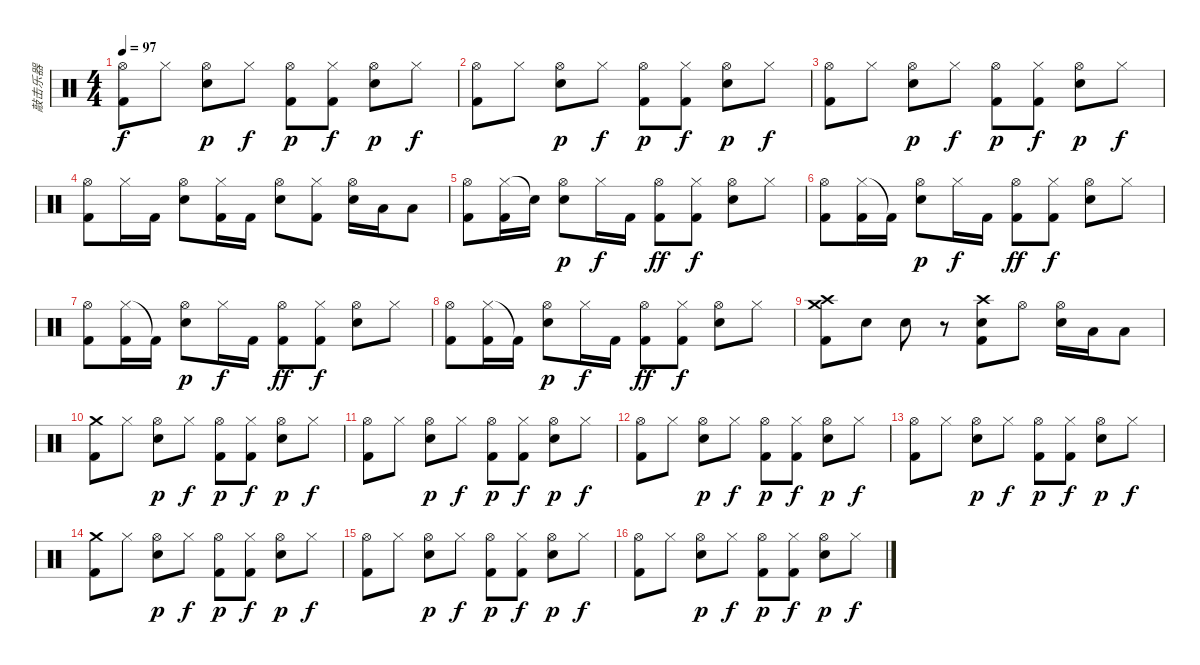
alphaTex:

\track ("敲击乐器" "敲击乐器") {instrument percussion}
\staff {score}
\articulation defaults
\ts (4 4)
\tempo 97
\clef neutral
\ks c
("Hi-Hat (open)" "Kick (hit) 2").8{dy f} "Hi-Hat (closed)".8 ("Hi-Hat (open)" "Snare (hit) 2").8{dy p} "Hi-Hat (closed)".8{dy f} ("Hi-Hat (open)" "Kick (hit) 2").8{dy p} ("Hi-Hat (closed)" "Kick (hit) 2").8{dy f} ("Hi-Hat (open)" "Snare (hit) 2").8{dy p} "Hi-Hat (closed)".8{dy f} |
("Hi-Hat (open)" "Kick (hit) 2").8 "Hi-Hat (closed)".8 ("Hi-Hat (open)" "Snare (hit) 2").8{dy p} "Hi-Hat (closed)".8{dy f} ("Hi-Hat (open)" "Kick (hit) 2").8{dy p} ("Hi-Hat (closed)" "Kick (hit) 2").8{dy f} ("Hi-Hat (open)" "Snare (hit) 2").8{dy p} "Hi-Hat (closed)".8{dy f} |
("Hi-Hat (open)" "Kick (hit) 2").8 "Hi-Hat (closed)".8 ("Hi-Hat (open)" "Snare (hit) 2").8{dy p} "Hi-Hat (closed)".8{dy f} ("Hi-Hat (open)" "Kick (hit) 2").8{dy p} ("Hi-Hat (closed)" "Kick (hit) 2").8{dy f} ("Hi-Hat (open)" "Snare (hit) 2").8{dy p} "Hi-Hat (closed)".8{dy f} |
("Hi-Hat (open)" "Kick (hit) 2").8 "Hi-Hat (closed)".16 "Kick (hit) 2".16 ("Hi-Hat (open)" "Snare (hit) 2").8 ("Hi-Hat (closed)" "Kick (hit) 2").16 "Kick (hit) 2".16 ("Hi-Hat (open)" "Snare (hit) 2").8 ("Hi-Hat (closed)" "Kick (hit) 2").8 ("Hi-Hat (open)" "Snare (hit) 2").16 "Low Tom (hit)".16 "Low Floor Tom (hit)".8 |
("Hi-Hat (open)" "Kick (hit) 2").8 ("Hi-Hat (closed)" "Kick (hit) 2").16 "Snare (hit)"{t}.16 ("Hi-Hat (open)" "Snare (hit) 2").8{dy p} "Hi-Hat (closed)".16{dy f} "Kick (hit) 2".16 ("Hi-Hat (open)" "Kick (hit) 2").8{dy ff} ("Hi-Hat (closed)" "Kick (hit) 2").8{dy f} ("Hi-Hat (open)" "Snare (hit) 2").8 "Hi-Hat (closed)".8 |
("Hi-Hat (open)" "Kick (hit) 2").8 ("Hi-Hat (closed)" "Kick (hit) 2").16 "Kick (hit) 2"{t}.16 ("Hi-Hat (open)" "Snare (hit) 2").8{dy p} "Hi-Hat (closed)".16{dy f} "Kick (hit) 2".16 ("Hi-Hat (open)" "Kick (hit) 2").8{dy ff} ("Hi-Hat (closed)" "Kick (hit) 2").8{dy f} ("Hi-Hat (open)" "Snare (hit) 2").8 "Hi-Hat (closed)".8 |
("Hi-Hat (open)" "Kick (hit) 2").8 ("Hi-Hat (closed)" "Kick (hit) 2").16 "Kick (hit) 2"{t}.16 ("Hi-Hat (open)" "Snare (hit) 2").8{dy p} "Hi-Hat (closed)".16{dy f} "Kick (hit) 2".16 ("Hi-Hat (open)" "Kick (hit) 2").8{dy ff} ("Hi-Hat (closed)" "Kick (hit) 2").8{dy f} ("Hi-Hat (open)" "Snare (hit) 2").8 "Hi-Hat (closed)".8 |
("Hi-Hat (open)" "Kick (hit) 2").8 ("Hi-Hat (closed)" "Kick (hit) 2").16 "Kick (hit) 2"{t}.16 ("Hi-Hat (open)" "Snare (hit) 2").8{dy p} "Hi-Hat (closed)".16{dy f} "Kick (hit) 2".16 ("Hi-Hat (open)" "Kick (hit) 2").8{dy ff} ("Hi-Hat (closed)" "Kick (hit) 2").8{dy f} ("Hi-Hat (open)" "Snare (hit) 2").8 "Hi-Hat (closed)".8 |
("Crash high (hit)" "Crash medium (hit)" "Kick (hit) 2").8 "Snare (hit) 2".8 "Snare (hit) 2".8 r.8 ("Crash high (hit)" "Snare (hit) 2" "Kick (hit) 2").8 "Hi-Hat (open)".8 ("Hi-Hat (open)" "Snare (hit) 2").16 "Low Tom (hit)".16 "Low Floor Tom (hit)".8 |
("Crash medium (hit)" "Kick (hit) 2").8 "Hi-Hat (closed)".8 ("Hi-Hat (open)" "Snare (hit) 2").8{dy p} "Hi-Hat (closed)".8{dy f} ("Hi-Hat (open)" "Kick (hit) 2").8{dy p} ("Hi-Hat (closed)" "Kick (hit) 2").8{dy f} ("Hi-Hat (open)" "Snare (hit) 2").8{dy p} "Hi-Hat (closed)".8{dy f} |
("Hi-Hat (open)" "Kick (hit) 2").8 "Hi-Hat (closed)".8 ("Hi-Hat (open)" "Snare (hit) 2").8{dy p} "Hi-Hat (closed)".8{dy f} ("Hi-Hat (open)" "Kick (hit) 2").8{dy p} ("Hi-Hat (closed)" "Kick (hit) 2").8{dy f} ("Hi-Hat (open)" "Snare (hit) 2").8{dy p} "Hi-Hat (closed)".8{dy f} |
("Hi-Hat (open)" "Kick (hit) 2").8 "Hi-Hat (closed)".8 ("Hi-Hat (open)" "Snare (hit) 2").8{dy p} "Hi-Hat (closed)".8{dy f} ("Hi-Hat (open)" "Kick (hit) 2").8{dy p} ("Hi-Hat (closed)" "Kick (hit) 2").8{dy f} ("Hi-Hat (open)" "Snare (hit) 2").8{dy p} "Hi-Hat (closed)".8{dy f} |
("Hi-Hat (open)" "Kick (hit) 2").8 "Hi-Hat (closed)".8 ("Hi-Hat (open)" "Snare (hit) 2").8{dy p} "Hi-Hat (closed)".8{dy f} ("Hi-Hat (open)" "Kick (hit) 2").8{dy p} ("Hi-Hat (closed)" "Kick (hit) 2").8{dy f} ("Hi-Hat (open)" "Snare (hit) 2").8{dy p} "Hi-Hat (closed)".8{dy f} |
("Crash medium (hit)" "Kick (hit) 2").8 "Hi-Hat (closed)".8 ("Hi-Hat (open)" "Snare (hit) 2").8{dy p} "Hi-Hat (closed)".8{dy f} ("Hi-Hat (open)" "Kick (hit) 2").8{dy p} ("Hi-Hat (closed)" "Kick (hit) 2").8{dy f} ("Hi-Hat (open)" "Snare (hit) 2").8{dy p} "Hi-Hat (closed)".8{dy f} |
("Hi-Hat (open)" "Kick (hit) 2").8 "Hi-Hat (closed)".8 ("Hi-Hat (open)" "Snare (hit) 2").8{dy p} "Hi-Hat (closed)".8{dy f} ("Hi-Hat (open)" "Kick (hit) 2").8{dy p} ("Hi-Hat (closed)" "Kick (hit) 2").8{dy f} ("Hi-Hat (open)" "Snare (hit) 2").8{dy p} "Hi-Hat (closed)".8{dy f} |
("Hi-Hat (open)" "Kick (hit) 2").8 "Hi-Hat (closed)".8 ("Hi-Hat (open)" "Snare (hit) 2").8{dy p} "Hi-Hat (closed)".8{dy f} ("Hi-Hat (open)" "Kick (hit) 2").8{dy p} ("Hi-Hat (closed)" "Kick (hit) 2").8{dy f} ("Hi-Hat (open)" "Snare (hit) 2").8{dy p} "Hi-Hat (closed)".8{dy f}
